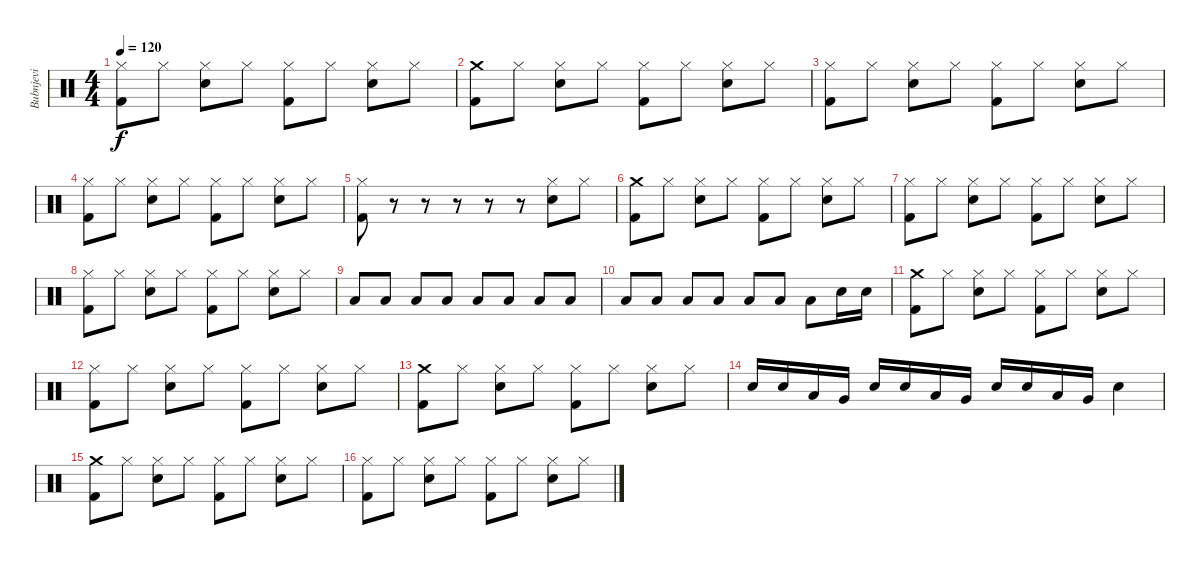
\track ("Bubnjevi" "Bubnjevi") {instrument percussion}
\staff {score}
\articulation defaults
\ts (4 4)
\tempo 120
\clef neutral
\ks c
("Hi-Hat (closed)" "Kick (hit) 2").8{dy f} "Hi-Hat (closed)".8 ("Electric Snare (hit)" "Hi-Hat (closed)").8 "Hi-Hat (closed)".8 ("Hi-Hat (closed)" "Kick (hit) 2").8 "Hi-Hat (closed)".8 ("Electric Snare (hit)" "Hi-Hat (closed)").8 "Hi-Hat (closed)".8 |
("Crash medium (hit)" "Kick (hit) 2").8 "Hi-Hat (closed)".8 ("Electric Snare (hit)" "Hi-Hat (closed)").8 "Hi-Hat (closed)".8 ("Hi-Hat (closed)" "Kick (hit) 2").8 "Hi-Hat (closed)".8 ("Electric Snare (hit)" "Hi-Hat (closed)").8 "Hi-Hat (closed)".8 |
("Hi-Hat (closed)" "Kick (hit) 2").8 "Hi-Hat (closed)".8 ("Electric Snare (hit)" "Hi-Hat (closed)").8 "Hi-Hat (closed)".8 ("Hi-Hat (closed)" "Kick (hit) 2").8 "Hi-Hat (closed)".8 ("Electric Snare (hit)" "Hi-Hat (closed)").8 "Hi-Hat (closed)".8 |
("Hi-Hat (closed)" "Kick (hit) 2").8 "Hi-Hat (closed)".8 ("Electric Snare (hit)" "Hi-Hat (closed)").8 "Hi-Hat (closed)".8 ("Hi-Hat (closed)" "Kick (hit) 2").8 "Hi-Hat (closed)".8 ("Electric Snare (hit)" "Hi-Hat (closed)").8 "Hi-Hat (closed)".8 |
("Hi-Hat (closed)" "Kick (hit) 2").8 r.8 r.8 r.8 r.8 r.8 ("Electric Snare (hit)" "Hi-Hat (closed)").8 "Hi-Hat (closed)".8 |
("Crash medium (hit)" "Kick (hit) 2").8 "Hi-Hat (closed)".8 ("Electric Snare (hit)" "Hi-Hat (closed)").8 "Hi-Hat (closed)".8 ("Hi-Hat (closed)" "Kick (hit) 2").8 "Hi-Hat (closed)".8 ("Electric Snare (hit)" "Hi-Hat (closed)").8 "Hi-Hat (closed)".8 |
("Hi-Hat (closed)" "Kick (hit) 2").8 "Hi-Hat (closed)".8 ("Electric Snare (hit)" "Hi-Hat (closed)").8 "Hi-Hat (closed)".8 ("Hi-Hat (closed)" "Kick (hit) 2").8 "Hi-Hat (closed)".8 ("Electric Snare (hit)" "Hi-Hat (closed)").8 "Hi-Hat (closed)".8 |
("Hi-Hat (closed)" "Kick (hit) 2").8 "Hi-Hat (closed)".8 ("Electric Snare (hit)" "Hi-Hat (closed)").8 "Hi-Hat (closed)".8 ("Hi-Hat (closed)" "Kick (hit) 2").8 "Hi-Hat (closed)".8 ("Electric Snare (hit)" "Hi-Hat (closed)").8 "Hi-Hat (closed)".8 |
"Low Tom (hit)".8 "Low Tom (hit)".8 "Low Tom (hit)".8 "Low Tom (hit)".8 "Low Tom (hit)".8 "Low Tom (hit)".8 "Low Tom (hit)".8 "Low Tom (hit)".8 |
"Low Tom (hit)".8 "Low Tom (hit)".8 "Low Tom (hit)".8 "Low Tom (hit)".8 "Low Tom (hit)".8 "Low Tom (hit)".8 "Low Tom (hit)".8 "Electric Snare (hit)".16 "Electric Snare (hit)".16 |
("Crash medium (hit)" "Kick (hit) 2").8 "Hi-Hat (closed)".8 ("Electric Snare (hit)" "Hi-Hat (closed)").8 "Hi-Hat (closed)".8 ("Hi-Hat (closed)" "Kick (hit) 2").8 "Hi-Hat (closed)".8 ("Electric Snare (hit)" "Hi-Hat (closed)").8 "Hi-Hat (closed)".8 |
("Hi-Hat (closed)" "Kick (hit) 2").8 "Hi-Hat (closed)".8 ("Electric Snare (hit)" "Hi-Hat (closed)").8 "Hi-Hat (closed)".8 ("Hi-Hat (closed)" "Kick (hit) 2").8 "Hi-Hat (closed)".8 ("Electric Snare (hit)" "Hi-Hat (closed)").8 "Hi-Hat (closed)".8 |
("Crash medium (hit)" "Kick (hit) 2").8 "Hi-Hat (closed)".8 ("Electric Snare (hit)" "Hi-Hat (closed)").8 "Hi-Hat (closed)".8 ("Hi-Hat (closed)" "Kick (hit) 2").8 "Hi-Hat (closed)".8 ("Electric Snare (hit)" "Hi-Hat (closed)").8 "Hi-Hat (closed)".8 |
"Electric Snare (hit)".16 "Electric Snare (hit)".16 "Low Tom (hit)".16 "Very Low Tom (hit)".16 "Electric Snare (hit)".16 "Electric Snare (hit)".16 "Low Tom (hit)".16 "Very Low Tom (hit)".16 "Electric Snare (hit)".16 "Electric Snare (hit)".16 "Low Tom (hit)".16 "Very Low Tom (hit)".16 "Electric Snare (hit)".4 |
("Crash medium (hit)" "Kick (hit) 2").8 "Hi-Hat (closed)".8 ("Electric Snare (hit)" "Hi-Hat (closed)").8 "Hi-Hat (closed)".8 ("Hi-Hat (closed)" "Kick (hit) 2").8 "Hi-Hat (closed)".8 ("Electric Snare (hit)" "Hi-Hat (closed)").8 "Hi-Hat (closed)".8 |
("Hi-Hat (closed)" "Kick (hit) 2").8 "Hi-Hat (closed)".8 ("Electric Snare (hit)" "Hi-Hat (closed)").8 "Hi-Hat (closed)".8 ("Hi-Hat (closed)" "Kick (hit) 2").8 "Hi-Hat (closed)".8 ("Electric Snare (hit)" "Hi-Hat (closed)").8 "Hi-Hat (closed)".8
